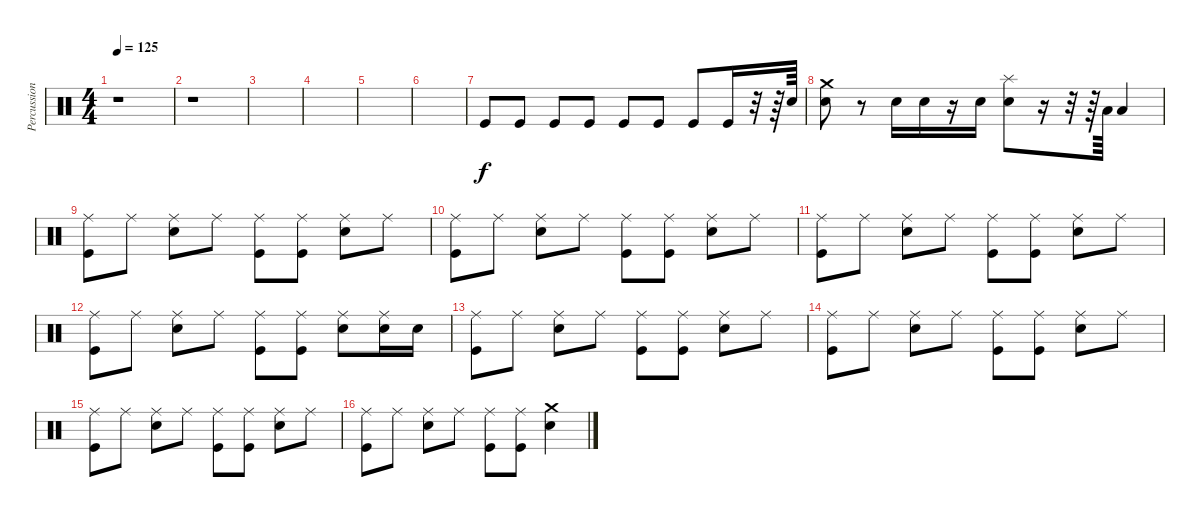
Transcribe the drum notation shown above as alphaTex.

\track ("Percussions" "Percussion") {instrument percussion}
\staff {score}
\articulation defaults
\ts (4 4)
\tempo 125
\clef neutral
\ks c
r.1{dy f} |
r.1 |
|
|
|
|
"Kick (hit)".8 "Kick (hit)".8 "Kick (hit)".8 "Kick (hit)".8 "Kick (hit)".8 "Kick (hit)".8 "Kick (hit)".8 "Kick (hit)".16 r.32 r.64 "Electric Snare (hit)".64 |
("Crash medium (hit)" "Electric Snare (hit)").8 r.8 "Electric Snare (hit)".16 "Electric Snare (hit)".16 r.16 "Electric Snare (hit)".16 ("Splash (hit)" "Electric Snare (hit)").8 r.16 r.32 r.64 "Low Tom (hit)".64 "Low Tom (hit)".4 |
("Ride (middle)" "Kick (hit)").8 "Ride (middle)".8 ("Ride (middle)" "Electric Snare (hit)").8 "Ride (middle)".8 ("Ride (middle)" "Kick (hit)").8 ("Ride (middle)" "Kick (hit)").8 ("Ride (middle)" "Electric Snare (hit)").8 "Ride (middle)".8 |
("Ride (middle)" "Kick (hit)").8 "Ride (middle)".8 ("Ride (middle)" "Electric Snare (hit)").8 "Ride (middle)".8 ("Ride (middle)" "Kick (hit)").8 ("Ride (middle)" "Kick (hit)").8 ("Ride (middle)" "Electric Snare (hit)").8 "Ride (middle)".8 |
("Ride (middle)" "Kick (hit)").8 "Ride (middle)".8 ("Ride (middle)" "Electric Snare (hit)").8 "Ride (middle)".8 ("Ride (middle)" "Kick (hit)").8 ("Ride (middle)" "Kick (hit)").8 ("Ride (middle)" "Electric Snare (hit)").8 "Ride (middle)".8 |
("Ride (middle)" "Kick (hit)").8 "Ride (middle)".8 ("Ride (middle)" "Electric Snare (hit)").8 "Ride (middle)".8 ("Ride (middle)" "Kick (hit)").8 ("Ride (middle)" "Kick (hit)").8 ("Ride (middle)" "Electric Snare (hit)").8 ("Ride (middle)" "Electric Snare (hit)").16 "Electric Snare (hit)".16 |
("Ride (middle)" "Kick (hit)").8 "Ride (middle)".8 ("Ride (middle)" "Electric Snare (hit)").8 "Ride (middle)".8 ("Ride (middle)" "Kick (hit)").8 ("Ride (middle)" "Kick (hit)").8 ("Ride (middle)" "Electric Snare (hit)").8 "Ride (middle)".8 |
("Ride (middle)" "Kick (hit)").8 "Ride (middle)".8 ("Ride (middle)" "Electric Snare (hit)").8 "Ride (middle)".8 ("Ride (middle)" "Kick (hit)").8 ("Ride (middle)" "Kick (hit)").8 ("Ride (middle)" "Electric Snare (hit)").8 "Ride (middle)".8 |
("Ride (middle)" "Kick (hit)").8 "Ride (middle)".8 ("Ride (middle)" "Electric Snare (hit)").8 "Ride (middle)".8 ("Ride (middle)" "Kick (hit)").8 ("Ride (middle)" "Kick (hit)").8 ("Ride (middle)" "Electric Snare (hit)").8 "Ride (middle)".8 |
("Ride (middle)" "Kick (hit)").8 "Ride (middle)".8 ("Ride (middle)" "Electric Snare (hit)").8 "Ride (middle)".8 ("Ride (middle)" "Kick (hit)").8 ("Ride (middle)" "Kick (hit)").8 ("Crash medium (hit)" "Electric Snare (hit)").4
